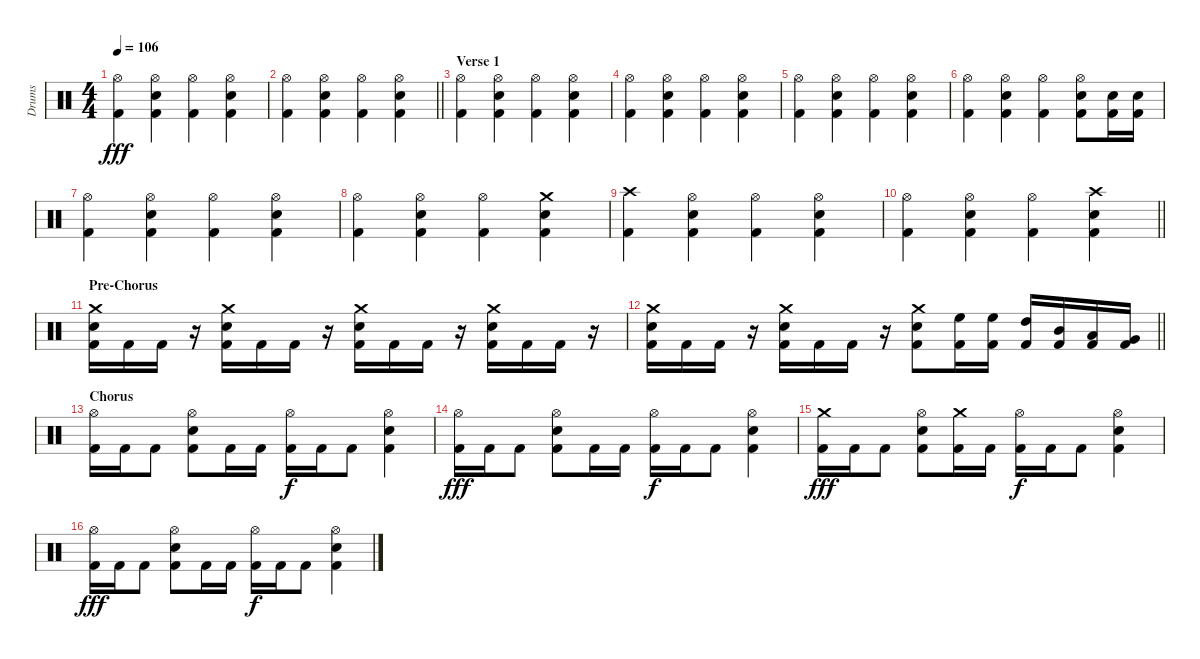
\track ("Drums" "Drums") {instrument percussion}
\staff {score}
\articulation defaults
\ts (4 4)
\tempo 106
\clef neutral
\ks c
("Hi-Hat (open)" "Kick (hit) 2").4{dy fff} ("Hi-Hat (open)" "Snare (hit) 2" "Kick (hit) 2").4 ("Hi-Hat (open)" "Kick (hit) 2").4 ("Hi-Hat (open)" "Snare (hit) 2" "Kick (hit) 2").4 |
\barLineRight lightlight
("Hi-Hat (open)" "Kick (hit) 2").4 ("Hi-Hat (open)" "Snare (hit) 2" "Kick (hit) 2").4 ("Hi-Hat (open)" "Kick (hit) 2").4 ("Hi-Hat (open)" "Snare (hit) 2" "Kick (hit) 2").4 |
\section ("" "Verse 1")
("Hi-Hat (open)" "Kick (hit) 2").4 ("Hi-Hat (open)" "Snare (hit) 2" "Kick (hit) 2").4 ("Hi-Hat (open)" "Kick (hit) 2").4 ("Hi-Hat (open)" "Snare (hit) 2" "Kick (hit) 2").4 |
("Hi-Hat (open)" "Kick (hit) 2").4 ("Hi-Hat (open)" "Snare (hit) 2" "Kick (hit) 2").4 ("Hi-Hat (open)" "Kick (hit) 2").4 ("Hi-Hat (open)" "Snare (hit) 2" "Kick (hit) 2").4 |
("Hi-Hat (open)" "Kick (hit) 2").4 ("Hi-Hat (open)" "Snare (hit) 2" "Kick (hit) 2").4 ("Hi-Hat (open)" "Kick (hit) 2").4 ("Hi-Hat (open)" "Snare (hit) 2" "Kick (hit) 2").4 |
("Hi-Hat (open)" "Kick (hit) 2").4 ("Hi-Hat (open)" "Snare (hit) 2" "Kick (hit) 2").4 ("Hi-Hat (open)" "Kick (hit) 2").4 ("Hi-Hat (open)" "Snare (hit) 2" "Kick (hit) 2").8 ("Snare (hit) 2" "Kick (hit) 2").16 ("Snare (hit) 2" "Kick (hit) 2").16 |
("Hi-Hat (open)" "Kick (hit) 2").4 ("Hi-Hat (open)" "Snare (hit) 2" "Kick (hit) 2").4 ("Hi-Hat (open)" "Kick (hit) 2").4 ("Hi-Hat (open)" "Snare (hit) 2" "Kick (hit) 2").4 |
("Hi-Hat (open)" "Kick (hit) 2").4 ("Hi-Hat (open)" "Snare (hit) 2" "Kick (hit) 2").4 ("Hi-Hat (open)" "Kick (hit) 2").4 ("Crash medium (hit)" "Snare (hit) 2" "Kick (hit) 2").4 |
("Crash high (hit)" "Kick (hit) 2").4 ("Hi-Hat (open)" "Snare (hit) 2" "Kick (hit) 2").4 ("Hi-Hat (open)" "Kick (hit) 2").4 ("Hi-Hat (open)" "Snare (hit) 2" "Kick (hit) 2").4 |
\barLineRight lightlight
("Hi-Hat (open)" "Kick (hit) 2").4 ("Hi-Hat (open)" "Snare (hit) 2" "Kick (hit) 2").4 ("Hi-Hat (open)" "Kick (hit) 2").4 ("Crash high (hit)" "Snare (hit) 2" "Kick (hit) 2").4 |
\section ("" "Pre-Chorus")
("Crash medium (hit)" "Snare (hit) 2" "Kick (hit) 2").16 "Kick (hit) 2".16 "Kick (hit) 2".16 r.16 ("Crash medium (hit)" "Snare (hit) 2" "Kick (hit) 2").16 "Kick (hit) 2".16 "Kick (hit) 2".16 r.16 ("Crash medium (hit)" "Snare (hit) 2" "Kick (hit) 2").16 "Kick (hit) 2".16 "Kick (hit) 2".16 r.16 ("Crash medium (hit)" "Snare (hit) 2" "Kick (hit) 2").16 "Kick (hit) 2".16 "Kick (hit) 2".16 r.16 |
\barLineRight lightlight
("Crash medium (hit)" "Snare (hit) 2" "Kick (hit) 2").16 "Kick (hit) 2".16 "Kick (hit) 2".16 r.16 ("Crash medium (hit)" "Snare (hit) 2" "Kick (hit) 2").16 "Kick (hit) 2".16 "Kick (hit) 2".16 r.16 ("Crash medium (hit)" "Snare (hit) 2" "Kick (hit) 2").8 ("High Floor Tom (hit)" "Kick (hit) 2").16 ("High Floor Tom (hit)" "Kick (hit) 2").16 ("High Tom (hit)" "Kick (hit) 2").16 ("Mid Tom (hit)" "Kick (hit) 2").16 ("Low Tom (hit)" "Kick (hit) 2").16 ("Very Low Tom (hit)" "Kick (hit) 2").16 |
\section ("" "Chorus")
("Hi-Hat (open)" "Kick (hit) 2").16 "Kick (hit) 2".16 "Kick (hit) 2".8 ("Hi-Hat (open)" "Snare (hit) 2" "Kick (hit) 2").8 "Kick (hit) 2".16 "Kick (hit) 2".16 ("Hi-Hat (open)" "Kick (hit) 2").16{dy f} "Kick (hit) 2".16 "Kick (hit) 2".8 ("Hi-Hat (open)" "Snare (hit) 2" "Kick (hit) 2").4 |
("Hi-Hat (open)" "Kick (hit) 2").16{dy fff} "Kick (hit) 2".16 "Kick (hit) 2".8 ("Hi-Hat (open)" "Snare (hit) 2" "Kick (hit) 2").8 "Kick (hit) 2".16 "Kick (hit) 2".16 ("Hi-Hat (open)" "Kick (hit) 2").16{dy f} "Kick (hit) 2".16 "Kick (hit) 2".8 ("Hi-Hat (open)" "Snare (hit) 2" "Kick (hit) 2").4 |
("Crash medium (hit)" "Kick (hit) 2").16{dy fff} "Kick (hit) 2".16 "Kick (hit) 2".8 ("Hi-Hat (open)" "Snare (hit) 2" "Kick (hit) 2").8 ("Crash medium (hit)" "Kick (hit) 2").16 "Kick (hit) 2".16 ("Hi-Hat (open)" "Kick (hit) 2").16{dy f} "Kick (hit) 2".16 "Kick (hit) 2".8 ("Hi-Hat (open)" "Snare (hit) 2" "Kick (hit) 2").4 |
("Hi-Hat (open)" "Kick (hit) 2").16{dy fff} "Kick (hit) 2".16 "Kick (hit) 2".8 ("Hi-Hat (open)" "Snare (hit) 2" "Kick (hit) 2").8 "Kick (hit) 2".16 "Kick (hit) 2".16 ("Hi-Hat (open)" "Kick (hit) 2").16{dy f} "Kick (hit) 2".16 "Kick (hit) 2".8 ("Hi-Hat (open)" "Snare (hit) 2" "Kick (hit) 2").4
